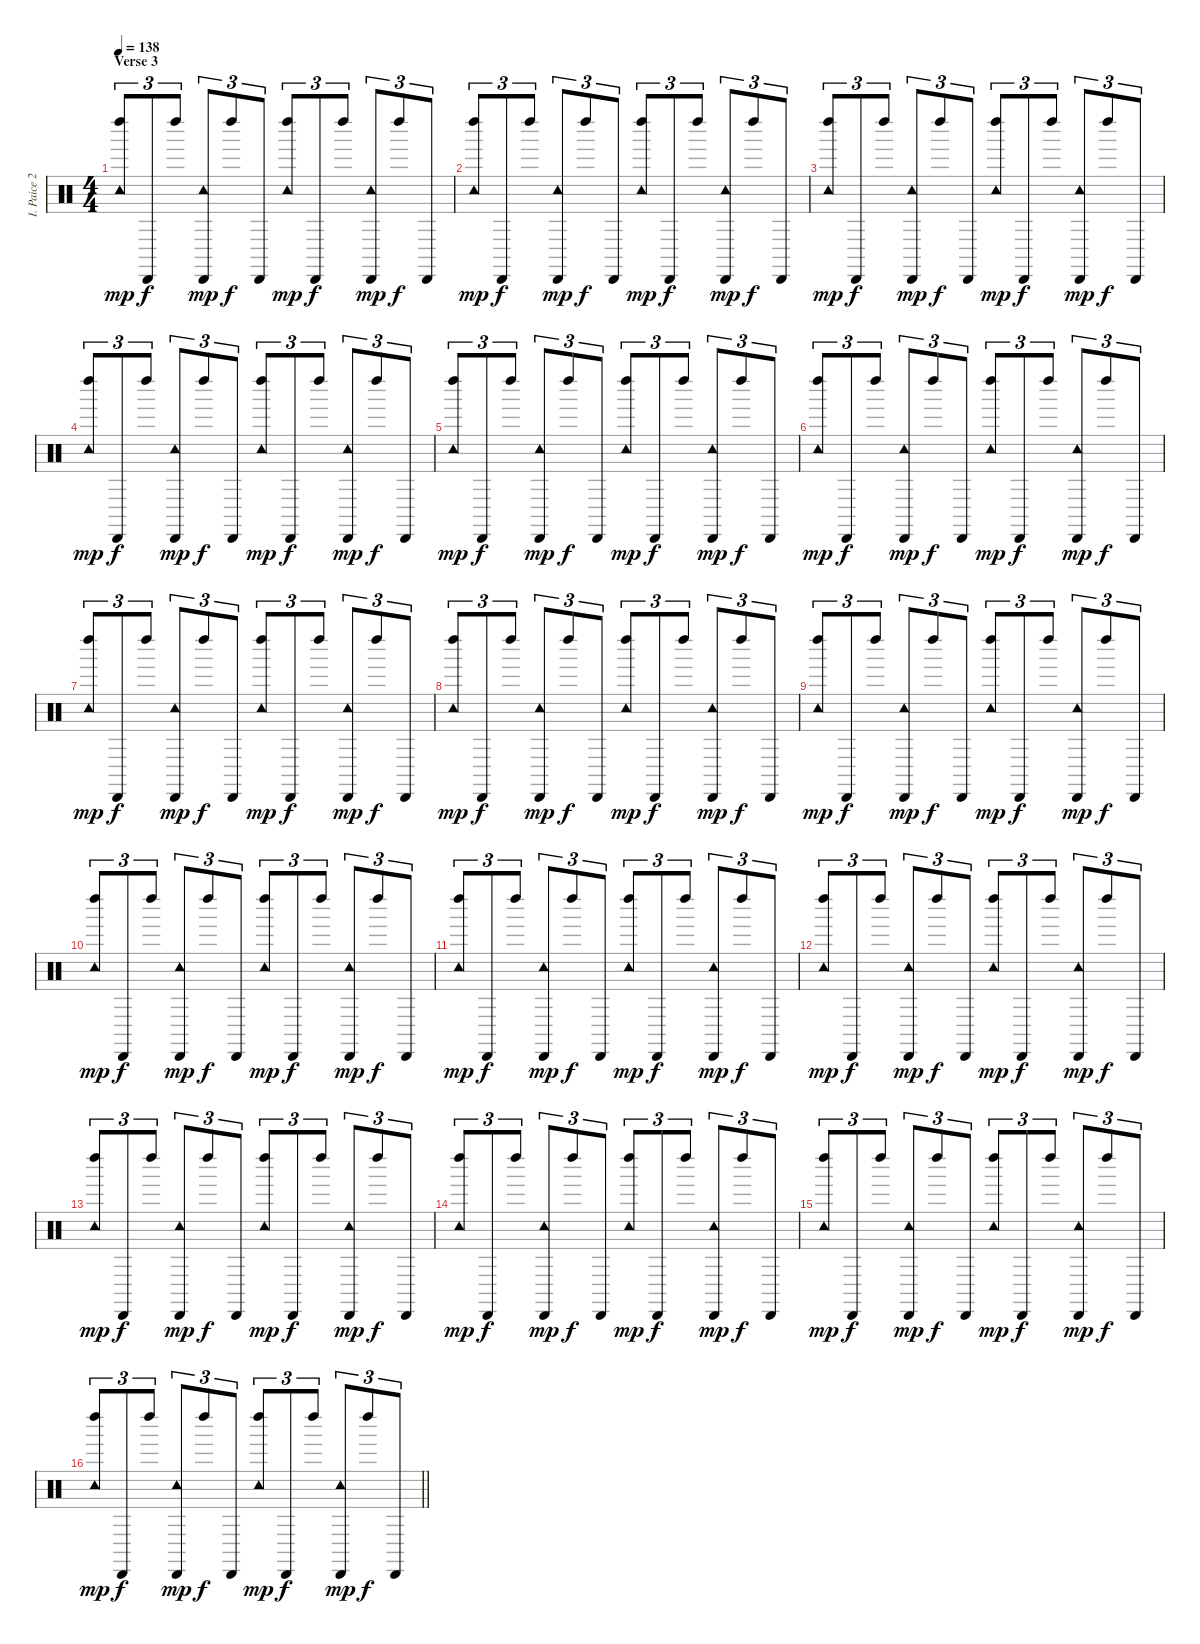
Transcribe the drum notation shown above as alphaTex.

\track ("I. Paice 2" "I. Paice 2") {instrument percussion}
\staff {score}
\articulation defaults
\ts (4 4)
\section ("" "Verse 3")
\tempo 138
\clef neutral
\ks c
("Tambourine (hit)" "Left Maraca (hit)").8{tu (3 2) dy mp} "Cabasa (hit)".8{tu (3 2) dy f} "Left Maraca (hit)".8{tu (3 2)} ("Tambourine (hit)" "Cabasa (hit)").8{tu (3 2) dy mp} "Left Maraca (hit)".8{tu (3 2) dy f} "Cabasa (hit)".8{tu (3 2)} ("Tambourine (hit)" "Left Maraca (hit)").8{tu (3 2) dy mp} "Cabasa (hit)".8{tu (3 2) dy f} "Left Maraca (hit)".8{tu (3 2)} ("Tambourine (hit)" "Cabasa (hit)").8{tu (3 2) dy mp} "Left Maraca (hit)".8{tu (3 2) dy f} "Cabasa (hit)".8{tu (3 2)} |
("Tambourine (hit)" "Left Maraca (hit)").8{tu (3 2) dy mp} "Cabasa (hit)".8{tu (3 2) dy f} "Left Maraca (hit)".8{tu (3 2)} ("Tambourine (hit)" "Cabasa (hit)").8{tu (3 2) dy mp} "Left Maraca (hit)".8{tu (3 2) dy f} "Cabasa (hit)".8{tu (3 2)} ("Tambourine (hit)" "Left Maraca (hit)").8{tu (3 2) dy mp} "Cabasa (hit)".8{tu (3 2) dy f} "Left Maraca (hit)".8{tu (3 2)} ("Tambourine (hit)" "Cabasa (hit)").8{tu (3 2) dy mp} "Left Maraca (hit)".8{tu (3 2) dy f} "Cabasa (hit)".8{tu (3 2)} |
("Tambourine (hit)" "Left Maraca (hit)").8{tu (3 2) dy mp} "Cabasa (hit)".8{tu (3 2) dy f} "Left Maraca (hit)".8{tu (3 2)} ("Tambourine (hit)" "Cabasa (hit)").8{tu (3 2) dy mp} "Left Maraca (hit)".8{tu (3 2) dy f} "Cabasa (hit)".8{tu (3 2)} ("Tambourine (hit)" "Left Maraca (hit)").8{tu (3 2) dy mp} "Cabasa (hit)".8{tu (3 2) dy f} "Left Maraca (hit)".8{tu (3 2)} ("Tambourine (hit)" "Cabasa (hit)").8{tu (3 2) dy mp} "Left Maraca (hit)".8{tu (3 2) dy f} "Cabasa (hit)".8{tu (3 2)} |
("Tambourine (hit)" "Left Maraca (hit)").8{tu (3 2) dy mp} "Cabasa (hit)".8{tu (3 2) dy f} "Left Maraca (hit)".8{tu (3 2)} ("Tambourine (hit)" "Cabasa (hit)").8{tu (3 2) dy mp} "Left Maraca (hit)".8{tu (3 2) dy f} "Cabasa (hit)".8{tu (3 2)} ("Tambourine (hit)" "Left Maraca (hit)").8{tu (3 2) dy mp} "Cabasa (hit)".8{tu (3 2) dy f} "Left Maraca (hit)".8{tu (3 2)} ("Tambourine (hit)" "Cabasa (hit)").8{tu (3 2) dy mp} "Left Maraca (hit)".8{tu (3 2) dy f} "Cabasa (hit)".8{tu (3 2)} |
("Tambourine (hit)" "Left Maraca (hit)").8{tu (3 2) dy mp} "Cabasa (hit)".8{tu (3 2) dy f} "Left Maraca (hit)".8{tu (3 2)} ("Tambourine (hit)" "Cabasa (hit)").8{tu (3 2) dy mp} "Left Maraca (hit)".8{tu (3 2) dy f} "Cabasa (hit)".8{tu (3 2)} ("Tambourine (hit)" "Left Maraca (hit)").8{tu (3 2) dy mp} "Cabasa (hit)".8{tu (3 2) dy f} "Left Maraca (hit)".8{tu (3 2)} ("Tambourine (hit)" "Cabasa (hit)").8{tu (3 2) dy mp} "Left Maraca (hit)".8{tu (3 2) dy f} "Cabasa (hit)".8{tu (3 2)} |
("Tambourine (hit)" "Left Maraca (hit)").8{tu (3 2) dy mp} "Cabasa (hit)".8{tu (3 2) dy f} "Left Maraca (hit)".8{tu (3 2)} ("Tambourine (hit)" "Cabasa (hit)").8{tu (3 2) dy mp} "Left Maraca (hit)".8{tu (3 2) dy f} "Cabasa (hit)".8{tu (3 2)} ("Tambourine (hit)" "Left Maraca (hit)").8{tu (3 2) dy mp} "Cabasa (hit)".8{tu (3 2) dy f} "Left Maraca (hit)".8{tu (3 2)} ("Tambourine (hit)" "Cabasa (hit)").8{tu (3 2) dy mp} "Left Maraca (hit)".8{tu (3 2) dy f} "Cabasa (hit)".8{tu (3 2)} |
("Tambourine (hit)" "Left Maraca (hit)").8{tu (3 2) dy mp} "Cabasa (hit)".8{tu (3 2) dy f} "Left Maraca (hit)".8{tu (3 2)} ("Tambourine (hit)" "Cabasa (hit)").8{tu (3 2) dy mp} "Left Maraca (hit)".8{tu (3 2) dy f} "Cabasa (hit)".8{tu (3 2)} ("Tambourine (hit)" "Left Maraca (hit)").8{tu (3 2) dy mp} "Cabasa (hit)".8{tu (3 2) dy f} "Left Maraca (hit)".8{tu (3 2)} ("Tambourine (hit)" "Cabasa (hit)").8{tu (3 2) dy mp} "Left Maraca (hit)".8{tu (3 2) dy f} "Cabasa (hit)".8{tu (3 2)} |
("Tambourine (hit)" "Left Maraca (hit)").8{tu (3 2) dy mp} "Cabasa (hit)".8{tu (3 2) dy f} "Left Maraca (hit)".8{tu (3 2)} ("Tambourine (hit)" "Cabasa (hit)").8{tu (3 2) dy mp} "Left Maraca (hit)".8{tu (3 2) dy f} "Cabasa (hit)".8{tu (3 2)} ("Tambourine (hit)" "Left Maraca (hit)").8{tu (3 2) dy mp} "Cabasa (hit)".8{tu (3 2) dy f} "Left Maraca (hit)".8{tu (3 2)} ("Tambourine (hit)" "Cabasa (hit)").8{tu (3 2) dy mp} "Left Maraca (hit)".8{tu (3 2) dy f} "Cabasa (hit)".8{tu (3 2)} |
("Tambourine (hit)" "Left Maraca (hit)").8{tu (3 2) dy mp} "Cabasa (hit)".8{tu (3 2) dy f} "Left Maraca (hit)".8{tu (3 2)} ("Tambourine (hit)" "Cabasa (hit)").8{tu (3 2) dy mp} "Left Maraca (hit)".8{tu (3 2) dy f} "Cabasa (hit)".8{tu (3 2)} ("Tambourine (hit)" "Left Maraca (hit)").8{tu (3 2) dy mp} "Cabasa (hit)".8{tu (3 2) dy f} "Left Maraca (hit)".8{tu (3 2)} ("Tambourine (hit)" "Cabasa (hit)").8{tu (3 2) dy mp} "Left Maraca (hit)".8{tu (3 2) dy f} "Cabasa (hit)".8{tu (3 2)} |
("Tambourine (hit)" "Left Maraca (hit)").8{tu (3 2) dy mp} "Cabasa (hit)".8{tu (3 2) dy f} "Left Maraca (hit)".8{tu (3 2)} ("Tambourine (hit)" "Cabasa (hit)").8{tu (3 2) dy mp} "Left Maraca (hit)".8{tu (3 2) dy f} "Cabasa (hit)".8{tu (3 2)} ("Tambourine (hit)" "Left Maraca (hit)").8{tu (3 2) dy mp} "Cabasa (hit)".8{tu (3 2) dy f} "Left Maraca (hit)".8{tu (3 2)} ("Tambourine (hit)" "Cabasa (hit)").8{tu (3 2) dy mp} "Left Maraca (hit)".8{tu (3 2) dy f} "Cabasa (hit)".8{tu (3 2)} |
("Tambourine (hit)" "Left Maraca (hit)").8{tu (3 2) dy mp} "Cabasa (hit)".8{tu (3 2) dy f} "Left Maraca (hit)".8{tu (3 2)} ("Tambourine (hit)" "Cabasa (hit)").8{tu (3 2) dy mp} "Left Maraca (hit)".8{tu (3 2) dy f} "Cabasa (hit)".8{tu (3 2)} ("Tambourine (hit)" "Left Maraca (hit)").8{tu (3 2) dy mp} "Cabasa (hit)".8{tu (3 2) dy f} "Left Maraca (hit)".8{tu (3 2)} ("Tambourine (hit)" "Cabasa (hit)").8{tu (3 2) dy mp} "Left Maraca (hit)".8{tu (3 2) dy f} "Cabasa (hit)".8{tu (3 2)} |
("Tambourine (hit)" "Left Maraca (hit)").8{tu (3 2) dy mp} "Cabasa (hit)".8{tu (3 2) dy f} "Left Maraca (hit)".8{tu (3 2)} ("Tambourine (hit)" "Cabasa (hit)").8{tu (3 2) dy mp} "Left Maraca (hit)".8{tu (3 2) dy f} "Cabasa (hit)".8{tu (3 2)} ("Tambourine (hit)" "Left Maraca (hit)").8{tu (3 2) dy mp} "Cabasa (hit)".8{tu (3 2) dy f} "Left Maraca (hit)".8{tu (3 2)} ("Tambourine (hit)" "Cabasa (hit)").8{tu (3 2) dy mp} "Left Maraca (hit)".8{tu (3 2) dy f} "Cabasa (hit)".8{tu (3 2)} |
("Tambourine (hit)" "Left Maraca (hit)").8{tu (3 2) dy mp} "Cabasa (hit)".8{tu (3 2) dy f} "Left Maraca (hit)".8{tu (3 2)} ("Tambourine (hit)" "Cabasa (hit)").8{tu (3 2) dy mp} "Left Maraca (hit)".8{tu (3 2) dy f} "Cabasa (hit)".8{tu (3 2)} ("Tambourine (hit)" "Left Maraca (hit)").8{tu (3 2) dy mp} "Cabasa (hit)".8{tu (3 2) dy f} "Left Maraca (hit)".8{tu (3 2)} ("Tambourine (hit)" "Cabasa (hit)").8{tu (3 2) dy mp} "Left Maraca (hit)".8{tu (3 2) dy f} "Cabasa (hit)".8{tu (3 2)} |
("Tambourine (hit)" "Left Maraca (hit)").8{tu (3 2) dy mp} "Cabasa (hit)".8{tu (3 2) dy f} "Left Maraca (hit)".8{tu (3 2)} ("Tambourine (hit)" "Cabasa (hit)").8{tu (3 2) dy mp} "Left Maraca (hit)".8{tu (3 2) dy f} "Cabasa (hit)".8{tu (3 2)} ("Tambourine (hit)" "Left Maraca (hit)").8{tu (3 2) dy mp} "Cabasa (hit)".8{tu (3 2) dy f} "Left Maraca (hit)".8{tu (3 2)} ("Tambourine (hit)" "Cabasa (hit)").8{tu (3 2) dy mp} "Left Maraca (hit)".8{tu (3 2) dy f} "Cabasa (hit)".8{tu (3 2)} |
("Tambourine (hit)" "Left Maraca (hit)").8{tu (3 2) dy mp} "Cabasa (hit)".8{tu (3 2) dy f} "Left Maraca (hit)".8{tu (3 2)} ("Tambourine (hit)" "Cabasa (hit)").8{tu (3 2) dy mp} "Left Maraca (hit)".8{tu (3 2) dy f} "Cabasa (hit)".8{tu (3 2)} ("Tambourine (hit)" "Left Maraca (hit)").8{tu (3 2) dy mp} "Cabasa (hit)".8{tu (3 2) dy f} "Left Maraca (hit)".8{tu (3 2)} ("Tambourine (hit)" "Cabasa (hit)").8{tu (3 2) dy mp} "Left Maraca (hit)".8{tu (3 2) dy f} "Cabasa (hit)".8{tu (3 2)} |
\barLineRight lightlight
("Tambourine (hit)" "Left Maraca (hit)").8{tu (3 2) dy mp} "Cabasa (hit)".8{tu (3 2) dy f} "Left Maraca (hit)".8{tu (3 2)} ("Tambourine (hit)" "Cabasa (hit)").8{tu (3 2) dy mp} "Left Maraca (hit)".8{tu (3 2) dy f} "Cabasa (hit)".8{tu (3 2)} ("Tambourine (hit)" "Left Maraca (hit)").8{tu (3 2) dy mp} "Cabasa (hit)".8{tu (3 2) dy f} "Left Maraca (hit)".8{tu (3 2)} ("Tambourine (hit)" "Cabasa (hit)").8{tu (3 2) dy mp} "Left Maraca (hit)".8{tu (3 2) dy f} "Cabasa (hit)".8{tu (3 2)}
